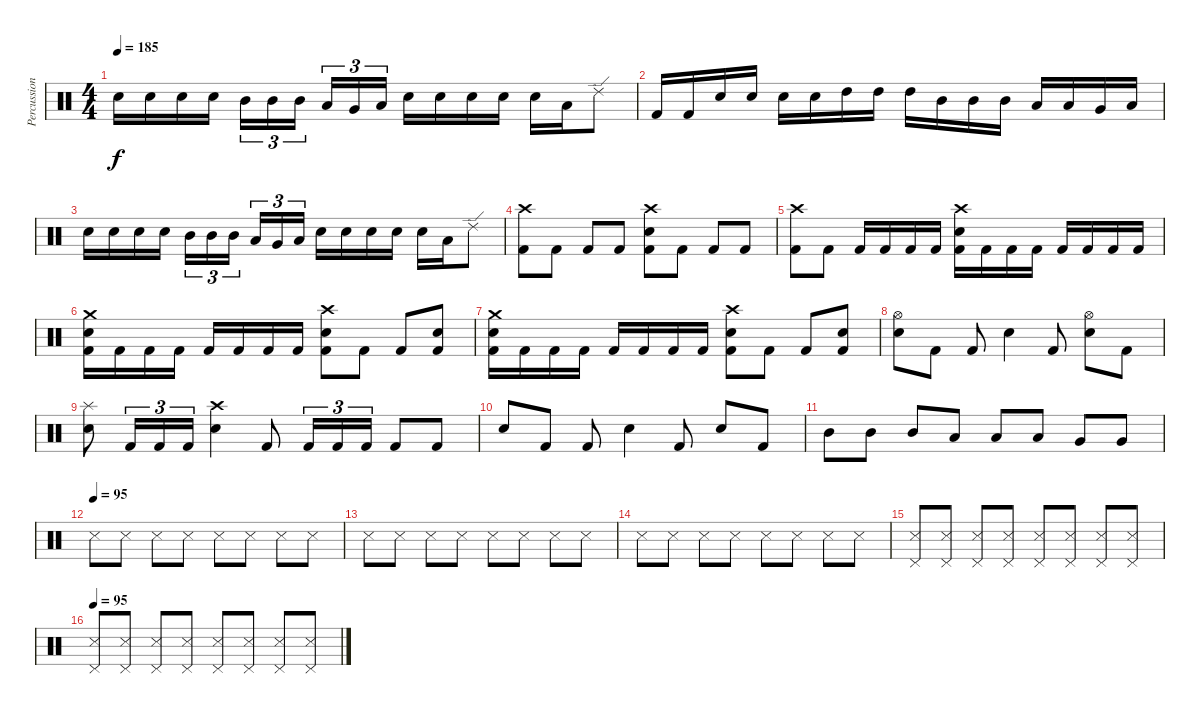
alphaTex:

\track ("Percussion" "Percussion") {instrument percussion}
\staff {score}
\articulation defaults
\ts (4 4)
\tempo 185
\clef neutral
\ks c "Electric Snare (hit)".16{dy f} "Electric Snare (hit)".16 "Electric Snare (hit)".16 "Electric Snare (hit)".16 "Mid Tom (hit)".16{tu (3 2)} "Mid Tom (hit)".16{tu (3 2)} "Mid Tom (hit)".16{tu (3 2) beam splitsecondary} "Low Tom (hit)".16{tu (3 2)} "Very Low Tom (hit)".16{tu (3 2)} "Low Floor Tom (hit)".16{tu (3 2)} "Electric Snare (hit)".16 "Electric Snare (hit)".16 "Electric Snare (hit)".16 "Electric Snare (hit)".16 "Electric Snare (hit)".16 "Low Tom (hit)".16 "Ride (edge) 2".8
|
"Kick (hit) 2".16 "Kick (hit) 2".16 "Electric Snare (hit)".16 "Electric Snare (hit)".16 "Electric Snare (hit)".16 "Electric Snare (hit)".16 "High Tom (hit)".16 "High Tom (hit)".16 "High Tom (hit)".16 "Mid Tom (hit)".16 "Mid Tom (hit)".16 "Mid Tom (hit)".16 "Low Tom (hit)".16 "Low Tom (hit)".16 "Very Low Tom (hit)".16 "Low Floor Tom (hit)".16 |
"Electric Snare (hit)".16 "Electric Snare (hit)".16 "Electric Snare (hit)".16 "Electric Snare (hit)".16 "Mid Tom (hit)".16{tu (3 2)} "Mid Tom (hit)".16{tu (3 2)} "Mid Tom (hit)".16{tu (3 2) beam splitsecondary} "Low Tom (hit)".16{tu (3 2)} "Very Low Tom (hit)".16{tu (3 2)} "Low Floor Tom (hit)".16{tu (3 2)} "Electric Snare (hit)".16 "Electric Snare (hit)".16 "Electric Snare (hit)".16 "Electric Snare (hit)".16 "Electric Snare (hit)".16 "Low Tom (hit)".16 "Ride (edge) 2".8 |
("Crash high (hit)" "Kick (hit) 2").8 "Kick (hit) 2".8 "Kick (hit) 2".8 "Kick (hit) 2".8 ("Crash high (hit)" "Electric Snare (hit)" "Kick (hit) 2").8 "Kick (hit) 2".8 "Kick (hit) 2".8 "Kick (hit) 2".8 |
("Crash high (hit)" "Kick (hit) 2").8 "Kick (hit) 2".8 "Kick (hit) 2".16 "Kick (hit) 2".16 "Kick (hit) 2".16 "Kick (hit) 2".16 ("Crash high (hit)" "Electric Snare (hit)" "Kick (hit) 2").16 "Kick (hit) 2".16 "Kick (hit) 2".16 "Kick (hit) 2".16 "Kick (hit) 2".16 "Kick (hit) 2".16 "Kick (hit) 2".16 "Kick (hit) 2".16 |
("Crash medium (hit)" "Electric Snare (hit)" "Kick (hit) 2").16 "Kick (hit) 2".16 "Kick (hit) 2".16 "Kick (hit) 2".16 "Kick (hit) 2".16 "Kick (hit) 2".16 "Kick (hit) 2".16 "Kick (hit) 2".16 ("Crash high (hit)" "Electric Snare (hit)" "Kick (hit) 2").8 "Kick (hit) 2".8 "Kick (hit) 2".8 ("Electric Snare (hit)" "Kick (hit) 2").8 |
("Crash medium (hit)" "Electric Snare (hit)" "Kick (hit) 2").16 "Kick (hit) 2".16 "Kick (hit) 2".16 "Kick (hit) 2".16 "Kick (hit) 2".16 "Kick (hit) 2".16 "Kick (hit) 2".16 "Kick (hit) 2".16 ("Crash high (hit)" "Electric Snare (hit)" "Kick (hit) 2").8 "Kick (hit) 2".8 "Kick (hit) 2".8 ("Electric Snare (hit)" "Kick (hit) 2").8 |
("Hi-Hat (open)" "Electric Snare (hit)").8 "Kick (hit) 2".8 "Kick (hit) 2".8 "Electric Snare (hit)".4 "Kick (hit) 2".8 ("Hi-Hat (open)" "Electric Snare (hit)").8 "Kick (hit) 2".8 |
("Splash (hit)" "Electric Snare (hit)").8 "Kick (hit) 2".16{tu (3 2)} "Kick (hit) 2".16{tu (3 2)} "Kick (hit) 2".16{tu (3 2)} ("Crash high (hit)" "Electric Snare (hit)").4 "Kick (hit) 2".8 "Kick (hit) 2".16{tu (3 2)} "Kick (hit) 2".16{tu (3 2)} "Kick (hit) 2".16{tu (3 2)} "Kick (hit) 2".8 "Kick (hit) 2".8 |
"Electric Snare (hit)".8 "Kick (hit) 2".8 "Kick (hit) 2".8 "Electric Snare (hit)".4 "Kick (hit) 2".8 "Electric Snare (hit)".8 "Kick (hit) 2".8 |
"Mid Tom (hit)".8 "Mid Tom (hit)".8 "Mid Tom (hit)".8 "Low Tom (hit)".8 "Low Tom (hit)".8 "Low Tom (hit)".8 "Very Low Tom (hit)".8 "Very Low Tom (hit)".8 |
\tempo (95)
"Metronome (hit)".8 "Metronome (hit)".8 "Metronome (hit)".8 "Metronome (hit)".8 "Metronome (hit)".8 "Metronome (hit)".8 "Metronome (hit)".8 "Metronome (hit)".8 |
"Metronome (hit)".8 "Metronome (hit)".8 "Metronome (hit)".8 "Metronome (hit)".8 "Metronome (hit)".8 "Metronome (hit)".8 "Metronome (hit)".8 "Metronome (hit)".8 |
"Metronome (hit)".8 "Metronome (hit)".8 "Metronome (hit)".8 "Metronome (hit)".8 "Metronome (hit)".8 "Metronome (hit)".8 "Metronome (hit)".8 "Metronome (hit)".8 |
("Pedal Hi-Hat (hit)" "Metronome (hit)").8 ("Pedal Hi-Hat (hit)" "Metronome (hit)").8 ("Pedal Hi-Hat (hit)" "Metronome (hit)").8 ("Pedal Hi-Hat (hit)" "Metronome (hit)").8 ("Pedal Hi-Hat (hit)" "Metronome (hit)").8 ("Pedal Hi-Hat (hit)" "Metronome (hit)").8 ("Pedal Hi-Hat (hit)" "Metronome (hit)").8 ("Pedal Hi-Hat (hit)" "Metronome (hit)").8 |
\tempo 95
("Pedal Hi-Hat (hit)" "Metronome (hit)").8 ("Pedal Hi-Hat (hit)" "Metronome (hit)").8 ("Pedal Hi-Hat (hit)" "Metronome (hit)").8 ("Pedal Hi-Hat (hit)" "Metronome (hit)").8 ("Pedal Hi-Hat (hit)" "Metronome (hit)").8 ("Pedal Hi-Hat (hit)" "Metronome (hit)").8 ("Pedal Hi-Hat (hit)" "Metronome (hit)").8 ("Pedal Hi-Hat (hit)" "Metronome (hit)").8
